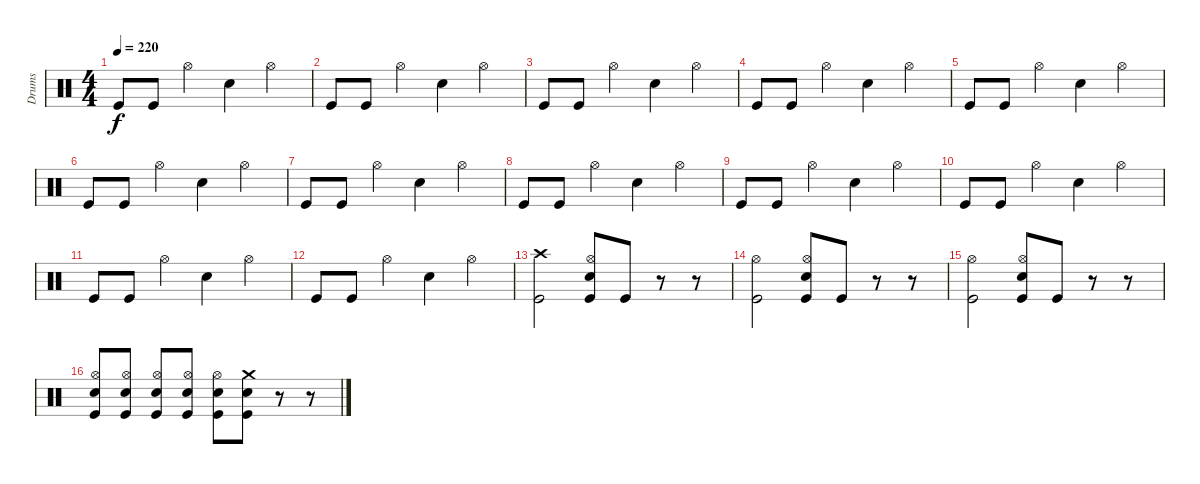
\track ("Drums" "Drums") {instrument percussion}
\staff {score}
\articulation defaults
\ts (4 4)
\tempo 220
\clef neutral
\ks c "Kick (hit)".8{dy f} "Kick (hit)".8 "Hi-Hat (open)".4 "Electric Snare (hit)".4 "Hi-Hat (open)".4
|
"Kick (hit)".8 "Kick (hit)".8 "Hi-Hat (open)".4 "Electric Snare (hit)".4 "Hi-Hat (open)".4 |
"Kick (hit)".8 "Kick (hit)".8 "Hi-Hat (open)".4 "Electric Snare (hit)".4 "Hi-Hat (open)".4 |
"Kick (hit)".8 "Kick (hit)".8 "Hi-Hat (open)".4 "Electric Snare (hit)".4 "Hi-Hat (open)".4 |
"Kick (hit)".8 "Kick (hit)".8 "Hi-Hat (open)".4 "Electric Snare (hit)".4 "Hi-Hat (open)".4 |
"Kick (hit)".8 "Kick (hit)".8 "Hi-Hat (open)".4 "Electric Snare (hit)".4 "Hi-Hat (open)".4 |
"Kick (hit)".8 "Kick (hit)".8 "Hi-Hat (open)".4 "Electric Snare (hit)".4 "Hi-Hat (open)".4 |
"Kick (hit)".8 "Kick (hit)".8 "Hi-Hat (open)".4 "Electric Snare (hit)".4 "Hi-Hat (open)".4 |
"Kick (hit)".8 "Kick (hit)".8 "Hi-Hat (open)".4 "Electric Snare (hit)".4 "Hi-Hat (open)".4 |
"Kick (hit)".8 "Kick (hit)".8 "Hi-Hat (open)".4 "Electric Snare (hit)".4 "Hi-Hat (open)".4 |
"Kick (hit)".8 "Kick (hit)".8 "Hi-Hat (open)".4 "Electric Snare (hit)".4 "Hi-Hat (open)".4 |
"Kick (hit)".8 "Kick (hit)".8 "Hi-Hat (open)".4 "Electric Snare (hit)".4 "Hi-Hat (open)".4 |
("Crash high (hit)" "Kick (hit)").2 ("Hi-Hat (open)" "Electric Snare (hit)" "Kick (hit)").8 "Kick (hit)".8 r.8 r.8 |
("Hi-Hat (open)" "Kick (hit)").2 ("Hi-Hat (open)" "Electric Snare (hit)" "Kick (hit)").8 "Kick (hit)".8 r.8 r.8 |
("Hi-Hat (open)" "Kick (hit)").2 ("Hi-Hat (open)" "Electric Snare (hit)" "Kick (hit)").8 "Kick (hit)".8 r.8 r.8 |
("Hi-Hat (open)" "Electric Snare (hit)" "Kick (hit)").8 ("Hi-Hat (open)" "Electric Snare (hit)" "Kick (hit)").8 ("Hi-Hat (open)" "Electric Snare (hit)" "Kick (hit)").8 ("Hi-Hat (open)" "Electric Snare (hit)" "Kick (hit)").8 ("Hi-Hat (open)" "Electric Snare (hit)" "Kick (hit)").8 ("Crash medium (hit)" "Electric Snare (hit)" "Kick (hit)").8 r.8 r.8
